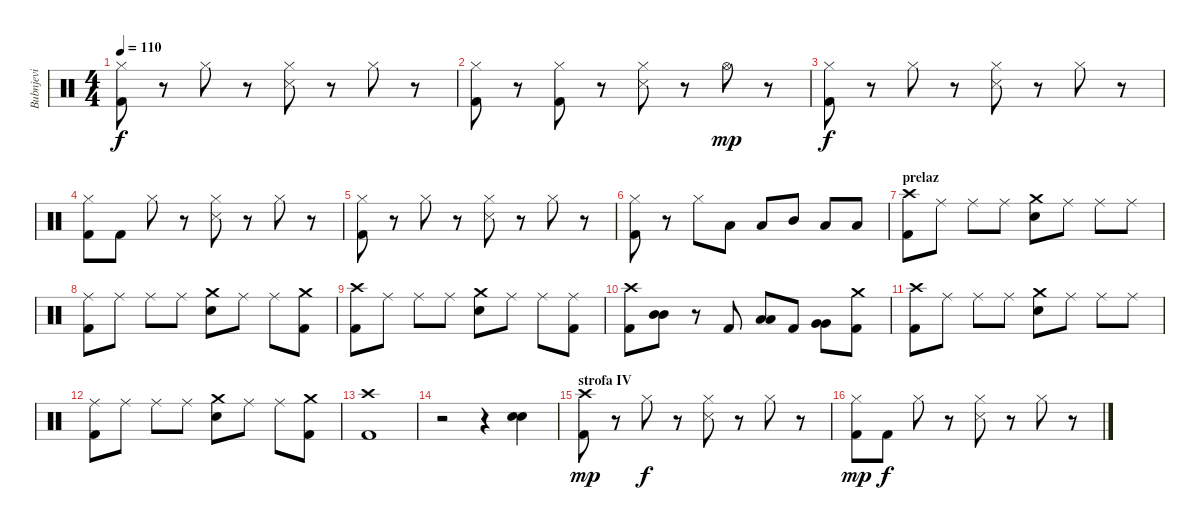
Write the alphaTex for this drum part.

\track ("Bubnjevi" "Bubnjevi") {instrument percussion}
\staff {score}
\articulation defaults
\ts (4 4)
\tempo 110
\clef neutral
\ks c
("Hi-Hat (closed)" "Kick (hit) 2").8{dy f} r.8 "Hi-Hat (closed)".8 r.8 ("Hi-Hat (closed)" "Snare (side stick) 3").8 r.8 "Hi-Hat (closed)".8 r.8 |
("Hi-Hat (closed)" "Kick (hit) 2").8 r.8 ("Hi-Hat (closed)" "Kick (hit) 2").8 r.8 ("Hi-Hat (closed)" "Snare (side stick) 3").8 r.8 "Hi-Hat (open)".8{dy mp} r.8 |
("Hi-Hat (closed)" "Kick (hit) 2").8{dy f} r.8 "Hi-Hat (closed)".8 r.8 ("Hi-Hat (closed)" "Snare (side stick) 3").8 r.8 "Hi-Hat (closed)".8 r.8 |
("Hi-Hat (closed)" "Kick (hit) 2").8 "Kick (hit) 2".8 "Hi-Hat (closed)".8 r.8 ("Hi-Hat (closed)" "Snare (side stick) 3").8 r.8 "Hi-Hat (closed)".8 r.8 |
("Hi-Hat (closed)" "Kick (hit) 2").8 r.8 "Hi-Hat (closed)".8 r.8 ("Hi-Hat (closed)" "Snare (side stick) 3").8 r.8 "Hi-Hat (closed)".8 r.8 |
("Hi-Hat (closed)" "Kick (hit) 2").8 r.8 "Hi-Hat (closed)".8 "Low Tom (hit)".8 "Low Tom (hit)".8 "Mid Tom (hit)".8 "Low Tom (hit)".8 "Low Tom (hit)".8 |
\section ("" "prelaz")
("Crash high (hit)" "Kick (hit) 2").8 "Ride (middle)".8 "Ride (middle)".8 "Ride (middle)".8 ("Crash medium (hit)" "Electric Snare (hit)").8 "Ride (middle)".8 "Ride (middle)".8 "Ride (middle)".8 |
("Ride (middle)" "Kick (hit) 2").8 "Ride (middle)".8 "Ride (middle)".8 "Ride (middle)".8 ("Crash medium (hit)" "Electric Snare (hit)").8 "Ride (middle)".8 "Ride (middle)".8 ("Crash medium (hit)" "Kick (hit) 2").8 |
("Crash high (hit)" "Kick (hit) 2").8 "Ride (middle)".8 "Ride (middle)".8 "Ride (middle)".8 ("Crash medium (hit)" "Electric Snare (hit)").8 "Ride (middle)".8 "Ride (middle)".8 ("Ride (middle)" "Kick (hit) 2").8 |
("Crash high (hit)" "Kick (hit) 2").8 ("Mid Tom (hit)" "Mid Tom (hit)").8{bd 120} r.8 "Kick (hit) 2".8 ("Low Tom (hit)" "Low Tom (hit)").8{bd 120} "Kick (hit) 2".8 ("Very Low Tom (hit)" "Very Low Tom (hit)").8{bd 120} ("Crash medium (hit)" "Kick (hit) 2").8 |
("Crash high (hit)" "Kick (hit) 2").8 "Ride (middle)".8 "Ride (middle)".8 "Ride (middle)".8 ("Crash medium (hit)" "Electric Snare (hit)").8 "Ride (middle)".8 "Ride (middle)".8 "Ride (middle)".8 |
("Ride (middle)" "Kick (hit) 2").8 "Ride (middle)".8 "Ride (middle)".8 "Ride (middle)".8 ("Crash medium (hit)" "Electric Snare (hit)").8 "Ride (middle)".8 "Ride (middle)".8 ("Crash medium (hit)" "Kick (hit) 2").8 |
("Crash high (hit)" "Kick (hit) 2").1 |
r.2 r.4 ("Electric Snare (hit)" "Electric Snare (hit)").4{bd 120} |
\section ("" "strofa IV")
("Crash high (hit)" "Kick (hit) 2").8{dy mp} r.8 "Hi-Hat (closed)".8{dy f} r.8 ("Hi-Hat (closed)" "Snare (side stick) 3").8 r.8 "Hi-Hat (closed)".8 r.8 |
("Hi-Hat (closed)" "Kick (hit) 2").8{dy mp} "Kick (hit) 2".8{dy f} "Hi-Hat (closed)".8 r.8 ("Hi-Hat (closed)" "Snare (side stick) 3").8 r.8 "Hi-Hat (closed)".8 r.8
